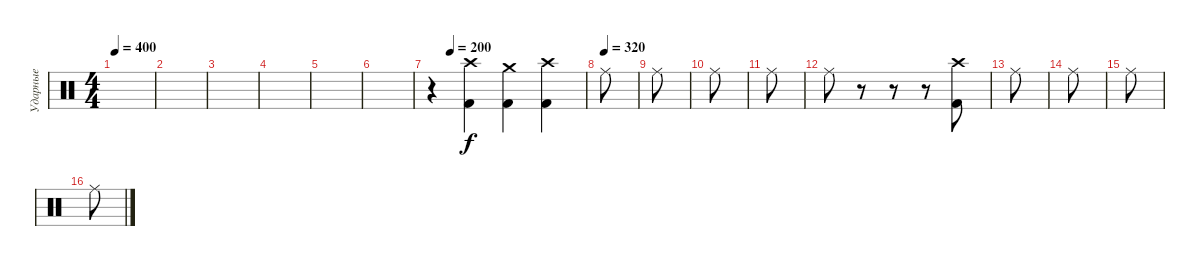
\track ("Ударные" "Ударные") {instrument percussion}
\staff {score}
\articulation defaults
\ts (4 4)
\tempo 400
\clef neutral
\ks c
|
|
|
|
|
|
\tempo (200 0.125)
r.4 ("Kick (hit) 2" "Crash high (hit)").4 ("Kick (hit) 2" "Crash medium (hit)").4 ("Kick (hit) 2" "Crash high (hit)").4 |
\tempo (320)
"Ride (middle)".8 |
"Ride (middle)".8 |
"Ride (middle)".8 |
"Ride (middle)".8 |
"Ride (middle)".8 r.8 r.8 r.8 ("Kick (hit) 2" "Crash high (hit)").8 |
"Ride (middle)".8 |
"Ride (middle)".8 |
"Ride (middle)".8 |
"Ride (middle)".8
